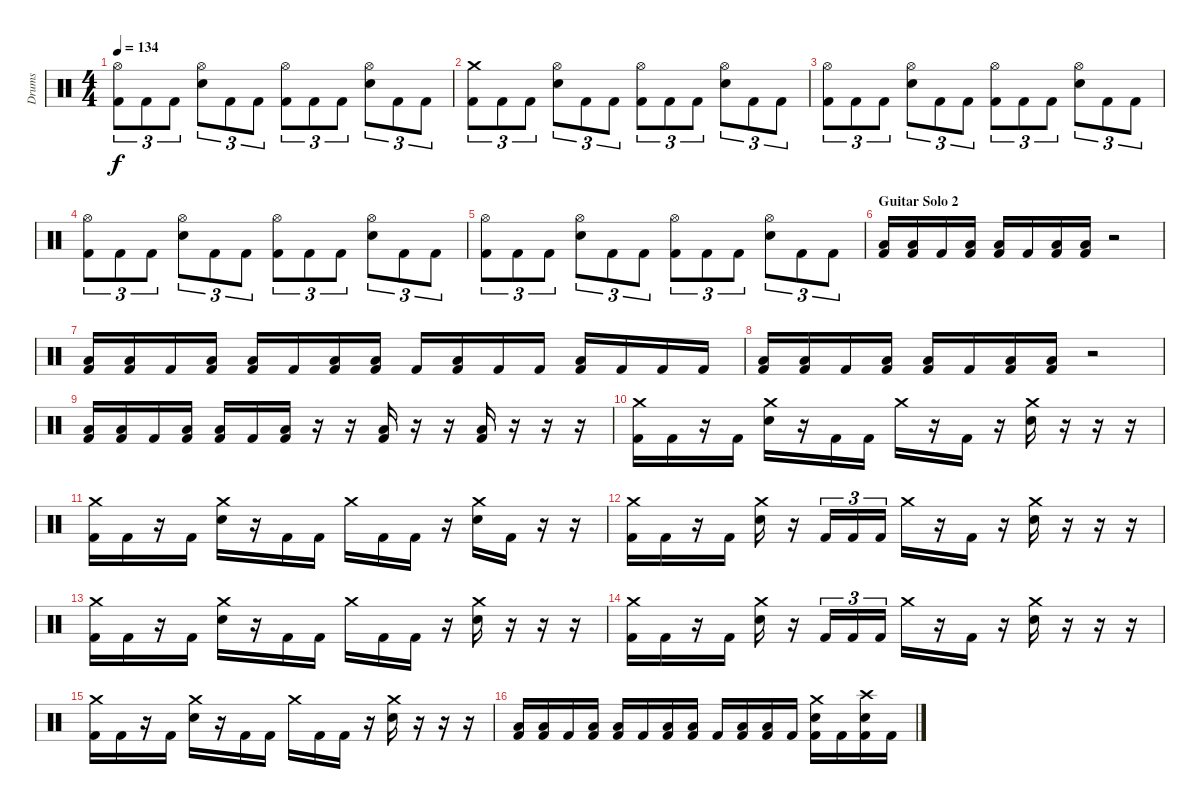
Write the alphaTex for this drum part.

\track ("Drums" "Drums") {instrument percussion}
\staff {score}
\articulation defaults
\ts (4 4)
\tempo 134
\clef neutral
\ks c
("Hi-Hat (open)" "Kick (hit) 2").8{tu (3 2) dy f} "Kick (hit) 2".8{tu (3 2)} "Kick (hit) 2".8{tu (3 2)} ("Hi-Hat (open)" "Electric Snare (hit)").8{tu (3 2)} "Kick (hit) 2".8{tu (3 2)} "Kick (hit) 2".8{tu (3 2)} ("Hi-Hat (open)" "Kick (hit) 2").8{tu (3 2)} "Kick (hit) 2".8{tu (3 2)} "Kick (hit) 2".8{tu (3 2)} ("Hi-Hat (open)" "Electric Snare (hit)").8{tu (3 2)} "Kick (hit) 2".8{tu (3 2)} "Kick (hit) 2".8{tu (3 2)} |
("Crash medium (hit)" "Kick (hit) 2").8{tu (3 2)} "Kick (hit) 2".8{tu (3 2)} "Kick (hit) 2".8{tu (3 2)} ("Hi-Hat (open)" "Electric Snare (hit)").8{tu (3 2)} "Kick (hit) 2".8{tu (3 2)} "Kick (hit) 2".8{tu (3 2)} ("Hi-Hat (open)" "Kick (hit) 2").8{tu (3 2)} "Kick (hit) 2".8{tu (3 2)} "Kick (hit) 2".8{tu (3 2)} ("Hi-Hat (open)" "Electric Snare (hit)").8{tu (3 2)} "Kick (hit) 2".8{tu (3 2)} "Kick (hit) 2".8{tu (3 2)} |
("Hi-Hat (open)" "Kick (hit) 2").8{tu (3 2)} "Kick (hit) 2".8{tu (3 2)} "Kick (hit) 2".8{tu (3 2)} ("Hi-Hat (open)" "Electric Snare (hit)").8{tu (3 2)} "Kick (hit) 2".8{tu (3 2)} "Kick (hit) 2".8{tu (3 2)} ("Hi-Hat (open)" "Kick (hit) 2").8{tu (3 2)} "Kick (hit) 2".8{tu (3 2)} "Kick (hit) 2".8{tu (3 2)} ("Hi-Hat (open)" "Electric Snare (hit)").8{tu (3 2)} "Kick (hit) 2".8{tu (3 2)} "Kick (hit) 2".8{tu (3 2)} |
("Hi-Hat (open)" "Kick (hit) 2").8{tu (3 2)} "Kick (hit) 2".8{tu (3 2)} "Kick (hit) 2".8{tu (3 2)} ("Hi-Hat (open)" "Electric Snare (hit)").8{tu (3 2)} "Kick (hit) 2".8{tu (3 2)} "Kick (hit) 2".8{tu (3 2)} ("Hi-Hat (open)" "Kick (hit) 2").8{tu (3 2)} "Kick (hit) 2".8{tu (3 2)} "Kick (hit) 2".8{tu (3 2)} ("Hi-Hat (open)" "Electric Snare (hit)").8{tu (3 2)} "Kick (hit) 2".8{tu (3 2)} "Kick (hit) 2".8{tu (3 2)} |
("Hi-Hat (open)" "Kick (hit) 2").8{tu (3 2)} "Kick (hit) 2".8{tu (3 2)} "Kick (hit) 2".8{tu (3 2)} ("Hi-Hat (open)" "Electric Snare (hit)").8{tu (3 2)} "Kick (hit) 2".8{tu (3 2)} "Kick (hit) 2".8{tu (3 2)} ("Hi-Hat (open)" "Kick (hit) 2").8{tu (3 2)} "Kick (hit) 2".8{tu (3 2)} "Kick (hit) 2".8{tu (3 2)} ("Hi-Hat (open)" "Electric Snare (hit)").8{tu (3 2)} "Kick (hit) 2".8{tu (3 2)} "Kick (hit) 2".8{tu (3 2)} |
\section ("" "Guitar Solo 2")
("Low Floor Tom (hit)" "Kick (hit) 2").16 ("Low Floor Tom (hit)" "Kick (hit) 2").16 "Kick (hit) 2".16 ("Low Floor Tom (hit)" "Kick (hit) 2").16 ("Low Floor Tom (hit)" "Kick (hit) 2").16 "Kick (hit) 2".16 ("Low Floor Tom (hit)" "Kick (hit) 2").16 ("Low Floor Tom (hit)" "Kick (hit) 2").16 r.2 |
("Low Floor Tom (hit)" "Kick (hit) 2").16 ("Low Floor Tom (hit)" "Kick (hit) 2").16 "Kick (hit) 2".16 ("Low Floor Tom (hit)" "Kick (hit) 2").16 ("Low Floor Tom (hit)" "Kick (hit) 2").16 "Kick (hit) 2".16 ("Low Floor Tom (hit)" "Kick (hit) 2").16 ("Low Floor Tom (hit)" "Kick (hit) 2").16 "Kick (hit) 2".16 ("Low Floor Tom (hit)" "Kick (hit) 2").16 "Kick (hit) 2".16 "Kick (hit) 2".16 ("Low Floor Tom (hit)" "Kick (hit) 2").16 "Kick (hit) 2".16 "Kick (hit) 2".16 "Kick (hit) 2".16 |
("Low Floor Tom (hit)" "Kick (hit) 2").16 ("Low Floor Tom (hit)" "Kick (hit) 2").16 "Kick (hit) 2".16 ("Low Floor Tom (hit)" "Kick (hit) 2").16 ("Low Floor Tom (hit)" "Kick (hit) 2").16 "Kick (hit) 2".16 ("Low Floor Tom (hit)" "Kick (hit) 2").16 ("Low Floor Tom (hit)" "Kick (hit) 2").16 r.2 |
("Low Floor Tom (hit)" "Kick (hit) 2").16 ("Low Floor Tom (hit)" "Kick (hit) 2").16 "Kick (hit) 2".16 ("Low Floor Tom (hit)" "Kick (hit) 2").16 ("Low Floor Tom (hit)" "Kick (hit) 2").16 "Kick (hit) 2".16 ("Low Floor Tom (hit)" "Kick (hit) 2").16 r.16 r.16 ("Low Floor Tom (hit)" "Kick (hit) 2").16 r.16 r.16 ("Low Floor Tom (hit)" "Kick (hit) 2").16 r.16 r.16 r.16 |
("Crash medium (hit)" "Kick (hit) 2").16 "Kick (hit) 2".16 r.16 "Kick (hit) 2".16 ("Crash medium (hit)" "Electric Snare (hit)").16 r.16 "Kick (hit) 2".16 "Kick (hit) 2".16 "Crash medium (hit)".16 r.16 "Kick (hit) 2".16 r.16 ("Crash medium (hit)" "Electric Snare (hit)").16 r.16 r.16 r.16 |
("Crash medium (hit)" "Kick (hit) 2").16 "Kick (hit) 2".16 r.16 "Kick (hit) 2".16 ("Crash medium (hit)" "Electric Snare (hit)").16 r.16 "Kick (hit) 2".16 "Kick (hit) 2".16 "Crash medium (hit)".16 "Kick (hit) 2".16 "Kick (hit) 2".16 r.16 ("Crash medium (hit)" "Electric Snare (hit)").16 "Kick (hit) 2".16 r.16 r.16 |
("Crash medium (hit)" "Kick (hit) 2").16 "Kick (hit) 2".16 r.16 "Kick (hit) 2".16 ("Crash medium (hit)" "Electric Snare (hit)").16 r.16 "Kick (hit) 2".16{tu (3 2)} "Kick (hit) 2".16{tu (3 2)} "Kick (hit) 2".16{tu (3 2)} "Crash medium (hit)".16 r.16 "Kick (hit) 2".16 r.16 ("Crash medium (hit)" "Electric Snare (hit)").16 r.16 r.16 r.16 |
("Crash medium (hit)" "Kick (hit) 2").16 "Kick (hit) 2".16 r.16 "Kick (hit) 2".16 ("Crash medium (hit)" "Electric Snare (hit)").16 r.16 "Kick (hit) 2".16 "Kick (hit) 2".16 "Crash medium (hit)".16 "Kick (hit) 2".16 "Kick (hit) 2".16 r.16 ("Crash medium (hit)" "Electric Snare (hit)").16 r.16 r.16 r.16 |
("Crash medium (hit)" "Kick (hit) 2").16 "Kick (hit) 2".16 r.16 "Kick (hit) 2".16 ("Crash medium (hit)" "Electric Snare (hit)").16 r.16 "Kick (hit) 2".16{tu (3 2)} "Kick (hit) 2".16{tu (3 2)} "Kick (hit) 2".16{tu (3 2)} "Crash medium (hit)".16 r.16 "Kick (hit) 2".16 r.16 ("Crash medium (hit)" "Electric Snare (hit)").16 r.16 r.16 r.16 |
("Crash medium (hit)" "Kick (hit) 2").16 "Kick (hit) 2".16 r.16 "Kick (hit) 2".16 ("Crash medium (hit)" "Electric Snare (hit)").16 r.16 "Kick (hit) 2".16 "Kick (hit) 2".16 "Crash medium (hit)".16 "Kick (hit) 2".16 "Kick (hit) 2".16 r.16 ("Crash medium (hit)" "Electric Snare (hit)").16 r.16 r.16 r.16 |
("Low Floor Tom (hit)" "Kick (hit) 2").16 ("Low Floor Tom (hit)" "Kick (hit) 2").16 "Kick (hit) 2".16 ("Low Floor Tom (hit)" "Kick (hit) 2").16 ("Low Floor Tom (hit)" "Kick (hit) 2").16 "Kick (hit) 2".16 ("Low Floor Tom (hit)" "Kick (hit) 2").16 ("Low Floor Tom (hit)" "Kick (hit) 2").16 "Kick (hit) 2".16 ("Low Floor Tom (hit)" "Kick (hit) 2").16 ("Low Floor Tom (hit)" "Kick (hit) 2").16 "Kick (hit) 2".16 ("Crash medium (hit)" "Electric Snare (hit)" "Kick (hit) 2").16 "Kick (hit) 2".16 ("Crash high (hit)" "Electric Snare (hit)" "Kick (hit) 2").16 "Kick (hit) 2".16
